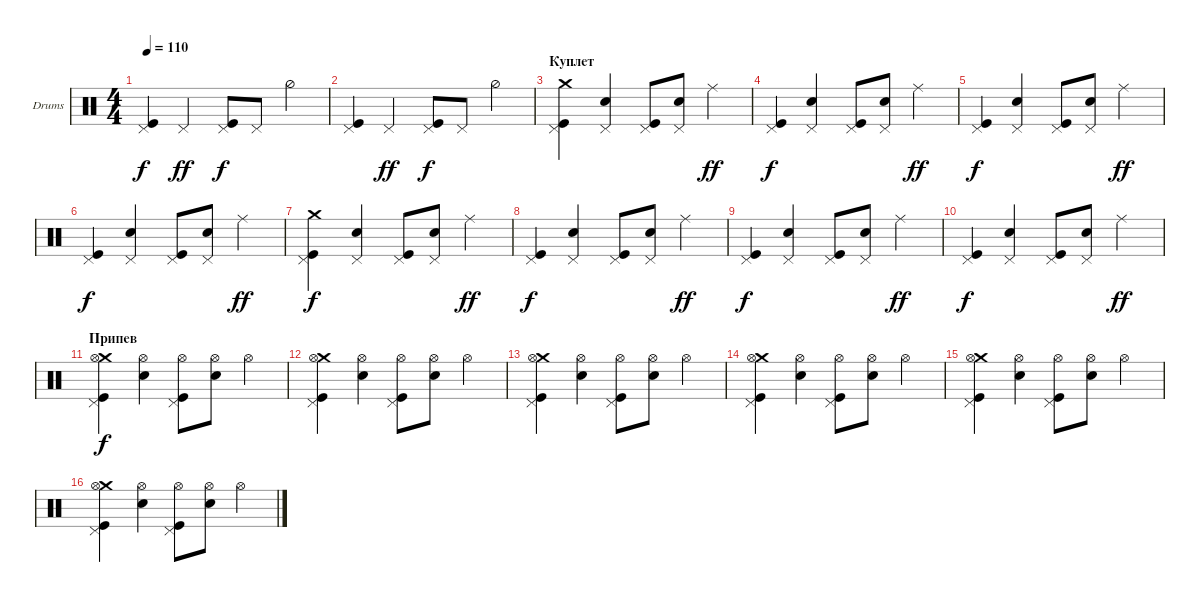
\defaultSystemsLayout 4
\bracketExtendMode groupsimilarinstruments
\firstSystemTrackNameOrientation horizontal
\otherSystemsTrackNameOrientation horizontal
\track ("Е. Кулаков" "Drums") {instrument percussion}
\staff {score}
\articulation defaults
\ts (4 4)
\tempo 110
\clef neutral
\ks c
("Pedal Hi-Hat (hit)" "Kick (hit)").4{dy f} "Pedal Hi-Hat (hit)".4{dy ff} ("Pedal Hi-Hat (hit)" "Kick (hit)").8{dy f} "Pedal Hi-Hat (hit)".8 "Hi-Hat (half)".4 |
("Pedal Hi-Hat (hit)" "Kick (hit)").4 "Pedal Hi-Hat (hit)".4{dy ff} ("Pedal Hi-Hat (hit)" "Kick (hit)").8{dy f} "Pedal Hi-Hat (hit)".8 "Hi-Hat (half)".4 |
\section ("" "Куплет")
("Crash medium (hit)" "Pedal Hi-Hat (hit)" "Kick (hit)").4 ("Snare (hit) 2" "Pedal Hi-Hat (hit)").4 ("Pedal Hi-Hat (hit)" "Kick (hit)").8 ("Snare (hit) 2" "Pedal Hi-Hat (hit)").8 "Ride (middle)".4{dy ff} |
("Pedal Hi-Hat (hit)" "Kick (hit)").4{dy f} ("Snare (hit) 2" "Pedal Hi-Hat (hit)").4 ("Pedal Hi-Hat (hit)" "Kick (hit)").8 ("Snare (hit) 2" "Pedal Hi-Hat (hit)").8 "Ride (middle)".4{dy ff} |
("Pedal Hi-Hat (hit)" "Kick (hit)").4{dy f} ("Snare (hit) 2" "Pedal Hi-Hat (hit)").4 ("Pedal Hi-Hat (hit)" "Kick (hit)").8 ("Snare (hit) 2" "Pedal Hi-Hat (hit)").8 "Ride (middle)".4{dy ff} |
("Pedal Hi-Hat (hit)" "Kick (hit)").4{dy f} ("Snare (hit) 2" "Pedal Hi-Hat (hit)").4 ("Pedal Hi-Hat (hit)" "Kick (hit)").8 ("Snare (hit) 2" "Pedal Hi-Hat (hit)").8 "Ride (middle)".4{dy ff} |
("Crash medium (hit)" "Pedal Hi-Hat (hit)" "Kick (hit)").4{dy f} ("Snare (hit) 2" "Pedal Hi-Hat (hit)").4 ("Pedal Hi-Hat (hit)" "Kick (hit)").8 ("Snare (hit) 2" "Pedal Hi-Hat (hit)").8 "Ride (middle)".4{dy ff} |
("Pedal Hi-Hat (hit)" "Kick (hit)").4{dy f} ("Snare (hit) 2" "Pedal Hi-Hat (hit)").4 ("Pedal Hi-Hat (hit)" "Kick (hit)").8 ("Snare (hit) 2" "Pedal Hi-Hat (hit)").8 "Ride (middle)".4{dy ff} |
("Pedal Hi-Hat (hit)" "Kick (hit)").4{dy f} ("Snare (hit) 2" "Pedal Hi-Hat (hit)").4 ("Pedal Hi-Hat (hit)" "Kick (hit)").8 ("Snare (hit) 2" "Pedal Hi-Hat (hit)").8 "Ride (middle)".4{dy ff} |
("Pedal Hi-Hat (hit)" "Kick (hit)").4{dy f} ("Snare (hit) 2" "Pedal Hi-Hat (hit)").4 ("Pedal Hi-Hat (hit)" "Kick (hit)").8 ("Snare (hit) 2" "Pedal Hi-Hat (hit)").8 "Ride (middle)".4{dy ff} |
\section ("" "Припев")
("Crash medium (hit)" "Pedal Hi-Hat (hit)" "Kick (hit)" "Hi-Hat (open)").4{dy f} ("Snare (hit) 2" "Hi-Hat (open)").4 ("Pedal Hi-Hat (hit)" "Kick (hit)" "Hi-Hat (open)").8 ("Snare (hit) 2" "Hi-Hat (open)").8 "Hi-Hat (open)".4 |
("Crash medium (hit)" "Pedal Hi-Hat (hit)" "Kick (hit)" "Hi-Hat (open)").4 ("Snare (hit) 2" "Hi-Hat (open)").4 ("Pedal Hi-Hat (hit)" "Kick (hit)" "Hi-Hat (open)").8 ("Snare (hit) 2" "Hi-Hat (open)").8 "Hi-Hat (open)".4 |
("Crash medium (hit)" "Pedal Hi-Hat (hit)" "Kick (hit)" "Hi-Hat (open)").4 ("Snare (hit) 2" "Hi-Hat (open)").4 ("Pedal Hi-Hat (hit)" "Kick (hit)" "Hi-Hat (open)").8 ("Snare (hit) 2" "Hi-Hat (open)").8 "Hi-Hat (open)".4 |
("Crash medium (hit)" "Pedal Hi-Hat (hit)" "Kick (hit)" "Hi-Hat (open)").4 ("Snare (hit) 2" "Hi-Hat (open)").4 ("Pedal Hi-Hat (hit)" "Kick (hit)" "Hi-Hat (open)").8 ("Snare (hit) 2" "Hi-Hat (open)").8 "Hi-Hat (open)".4 |
("Crash medium (hit)" "Pedal Hi-Hat (hit)" "Kick (hit)" "Hi-Hat (open)").4 ("Snare (hit) 2" "Hi-Hat (open)").4 ("Pedal Hi-Hat (hit)" "Kick (hit)" "Hi-Hat (open)").8 ("Snare (hit) 2" "Hi-Hat (open)").8 "Hi-Hat (open)".4 |
("Crash medium (hit)" "Pedal Hi-Hat (hit)" "Kick (hit)" "Hi-Hat (open)").4 ("Snare (hit) 2" "Hi-Hat (open)").4 ("Pedal Hi-Hat (hit)" "Kick (hit)" "Hi-Hat (open)").8 ("Snare (hit) 2" "Hi-Hat (open)").8 "Hi-Hat (open)".4
